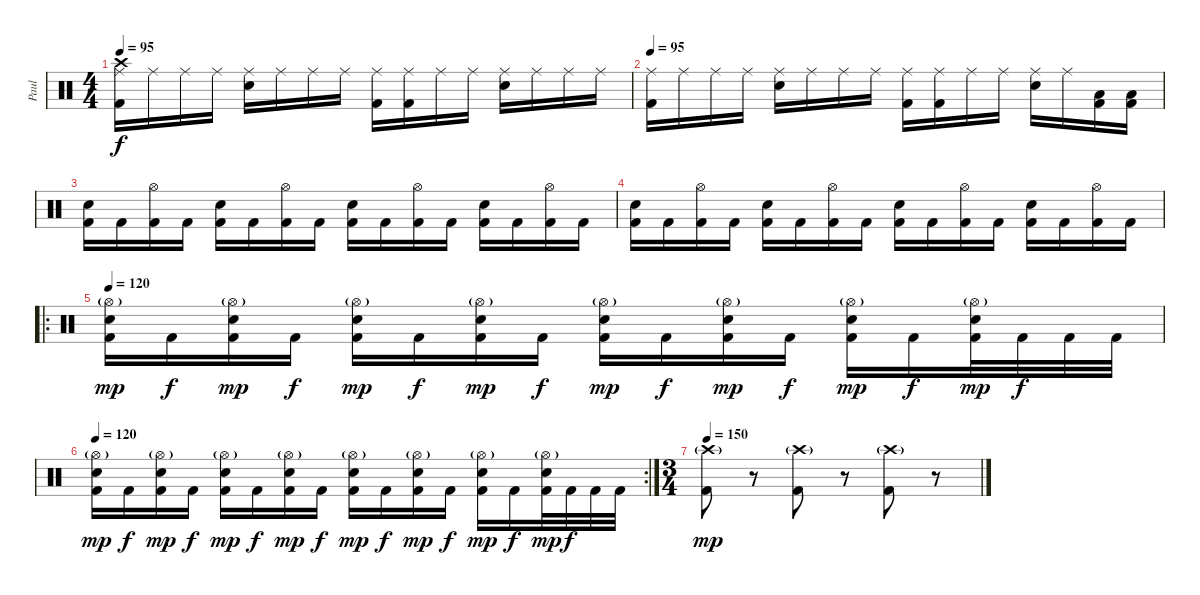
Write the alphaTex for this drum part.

\track ("Paul" "Paul") {instrument percussion}
\staff {score}
\articulation defaults
\ts (4 4)
\tempo 95
\clef neutral
\ks c
("Ride (middle)" "Kick (hit) 2" "Crash high (hit)").16{dy f volume 15} "Ride (middle)".16 "Ride (middle)".16 "Ride (middle)".16 ("Ride (middle)" "Electric Snare (hit)").16 "Ride (middle)".16 "Ride (middle)".16 "Ride (middle)".16 ("Ride (middle)" "Kick (hit) 2").16 ("Ride (middle)" "Kick (hit) 2").16 "Ride (middle)".16 "Ride (middle)".16 ("Ride (middle)" "Electric Snare (hit)").16 "Ride (middle)".16 "Ride (middle)".16 "Ride (middle)".16 |
\tempo 95
("Ride (middle)" "Kick (hit) 2").16{volume 15} "Ride (middle)".16 "Ride (middle)".16 "Ride (middle)".16 ("Ride (middle)" "Electric Snare (hit)").16 "Ride (middle)".16 "Ride (middle)".16 "Ride (middle)".16 ("Ride (middle)" "Kick (hit) 2").16 ("Ride (middle)" "Kick (hit) 2").16 "Ride (middle)".16 "Ride (middle)".16 ("Ride (middle)" "Electric Snare (hit)").16 "Ride (middle)".16 ("Low Floor Tom (hit)" "Kick (hit) 2").16 ("Low Floor Tom (hit)" "Kick (hit) 2").16 |
("Electric Snare (hit)" "Kick (hit) 2").16 "Kick (hit) 2".16 ("Hi-Hat (open)" "Kick (hit) 2").16 "Kick (hit) 2".16 ("Electric Snare (hit)" "Kick (hit) 2").16 "Kick (hit) 2".16 ("Hi-Hat (open)" "Kick (hit) 2").16 "Kick (hit) 2".16 ("Electric Snare (hit)" "Kick (hit) 2").16 "Kick (hit) 2".16 ("Hi-Hat (open)" "Kick (hit) 2").16 "Kick (hit) 2".16 ("Electric Snare (hit)" "Kick (hit) 2").16 "Kick (hit) 2".16 ("Hi-Hat (open)" "Kick (hit) 2").16 "Kick (hit) 2".16 |
("Electric Snare (hit)" "Kick (hit) 2").16 "Kick (hit) 2".16 ("Hi-Hat (open)" "Kick (hit) 2").16 "Kick (hit) 2".16 ("Electric Snare (hit)" "Kick (hit) 2").16 "Kick (hit) 2".16 ("Hi-Hat (open)" "Kick (hit) 2").16 "Kick (hit) 2".16 ("Electric Snare (hit)" "Kick (hit) 2").16 "Kick (hit) 2".16 ("Hi-Hat (open)" "Kick (hit) 2").16 "Kick (hit) 2".16 ("Electric Snare (hit)" "Kick (hit) 2").16 "Kick (hit) 2".16 ("Hi-Hat (open)" "Kick (hit) 2").16 "Kick (hit) 2".16 |
\ro
\tempo 120
("Hi-Hat (open)"{g} "Electric Snare (hit)" "Kick (hit) 2").16{dy mp} "Kick (hit) 2".16{dy f} ("Hi-Hat (open)"{g} "Electric Snare (hit)" "Kick (hit) 2").16{dy mp} "Kick (hit) 2".16{dy f} ("Hi-Hat (open)"{g} "Electric Snare (hit)" "Kick (hit) 2").16{dy mp} "Kick (hit) 2".16{dy f} ("Hi-Hat (open)"{g} "Electric Snare (hit)" "Kick (hit) 2").16{dy mp} "Kick (hit) 2".16{dy f} ("Hi-Hat (open)"{g} "Electric Snare (hit)" "Kick (hit) 2").16{dy mp} "Kick (hit) 2".16{dy f} ("Hi-Hat (open)"{g} "Electric Snare (hit)" "Kick (hit) 2").16{dy mp} "Kick (hit) 2".16{dy f} ("Hi-Hat (open)"{g} "Electric Snare (hit)" "Kick (hit) 2").16{dy mp} "Kick (hit) 2".16{dy f} ("Hi-Hat (open)"{g} "Electric Snare (hit)" "Kick (hit) 2").32{dy mp} "Kick (hit) 2".32{dy f} "Kick (hit) 2".32 "Kick (hit) 2".32 |
\rc 2
\tempo 120
("Hi-Hat (open)"{g} "Electric Snare (hit)" "Kick (hit) 2").16{dy mp} "Kick (hit) 2".16{dy f} ("Hi-Hat (open)"{g} "Electric Snare (hit)" "Kick (hit) 2").16{dy mp} "Kick (hit) 2".16{dy f} ("Hi-Hat (open)"{g} "Electric Snare (hit)" "Kick (hit) 2").16{dy mp} "Kick (hit) 2".16{dy f} ("Hi-Hat (open)"{g} "Electric Snare (hit)" "Kick (hit) 2").16{dy mp} "Kick (hit) 2".16{dy f} ("Hi-Hat (open)"{g} "Electric Snare (hit)" "Kick (hit) 2").16{dy mp} "Kick (hit) 2".16{dy f} ("Hi-Hat (open)"{g} "Electric Snare (hit)" "Kick (hit) 2").16{dy mp} "Kick (hit) 2".16{dy f} ("Hi-Hat (open)"{g} "Electric Snare (hit)" "Kick (hit) 2").16{dy mp} "Kick (hit) 2".16{dy f} ("Hi-Hat (open)"{g} "Electric Snare (hit)" "Kick (hit) 2").32{dy mp} "Kick (hit) 2".32{dy f} "Kick (hit) 2".32 "Kick (hit) 2".32 |
\ts (3 4)
\tempo 150
("Crash high (hit)"{g} "Kick (hit) 2").8{dy mp} r.8 ("Crash high (hit)"{g} "Kick (hit) 2").8 r.8 ("Crash high (hit)"{g} "Kick (hit) 2").8 r.8
